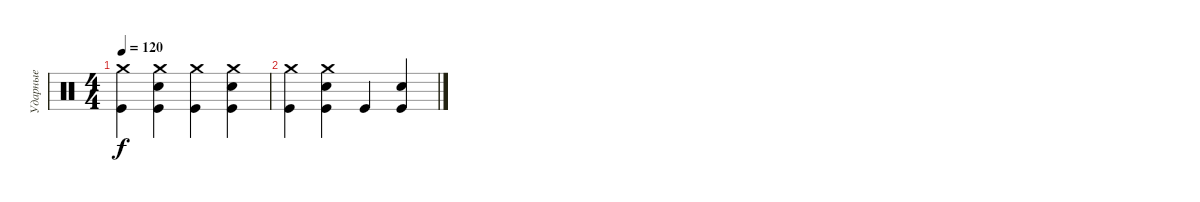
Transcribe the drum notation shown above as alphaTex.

\track ("Ударные" "Ударные") {instrument percussion}
\staff {score}
\articulation defaults
\ts (4 4)
\tempo 120
\clef neutral
\ks c
("Crash medium (hit)" "Kick (hit)").4{dy f} ("Crash medium (hit)" "Kick (hit)" "Snare (hit) 2").4 ("Crash medium (hit)" "Kick (hit)").4 ("Crash medium (hit)" "Kick (hit)" "Snare (hit) 2").4 |
("Crash medium (hit)" "Kick (hit)").4 ("Crash medium (hit)" "Kick (hit)" "Snare (hit) 2").4 "Kick (hit)".4 ("Kick (hit)" "Snare (hit) 2").4
